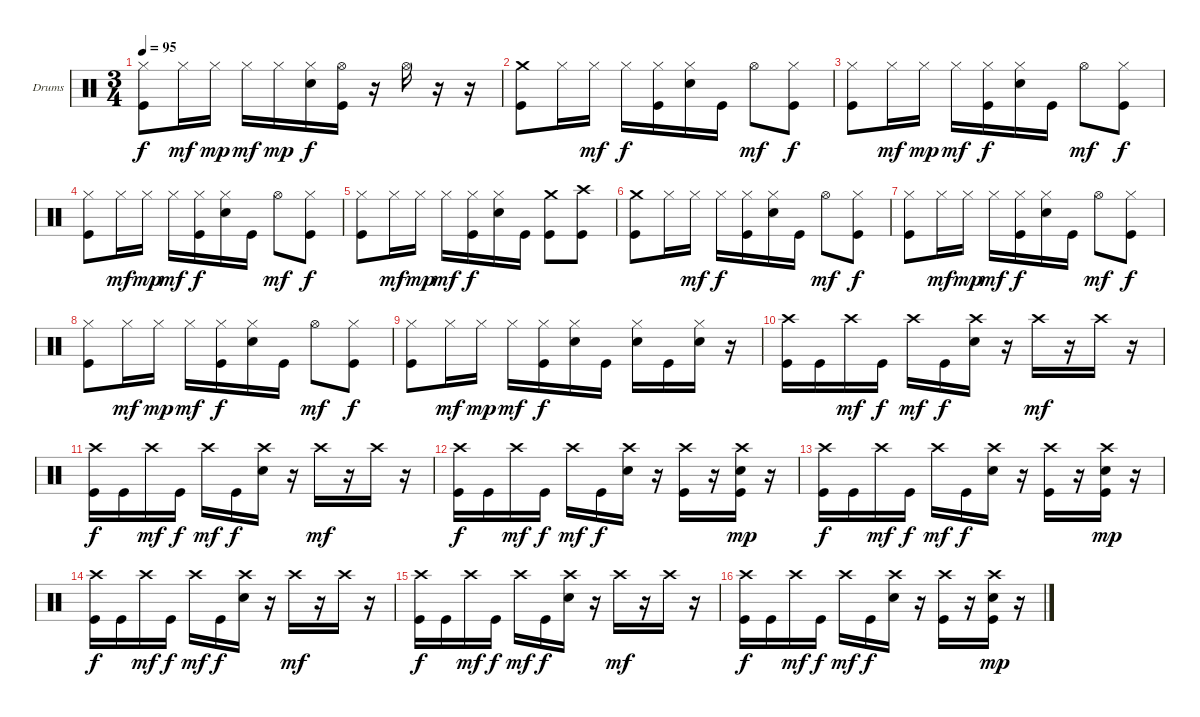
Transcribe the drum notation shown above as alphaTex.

\defaultSystemsLayout 4
\bracketExtendMode groupsimilarinstruments
\firstSystemTrackNameOrientation horizontal
\otherSystemsTrackNameOrientation horizontal
\track ("Drumkit" "Drums") {instrument percussion}
\staff {score}
\articulation defaults
\ts (3 4)
\tempo 95
\clef neutral
\ks c
("Kick (hit)" "Hi-Hat (closed)").8{dy f} "Hi-Hat (closed)".16{dy mf} "Hi-Hat (closed)".16{dy mp} "Hi-Hat (closed)".16{dy mf} "Hi-Hat (closed)".16{dy mp} ("Snare (hit) 2" "Hi-Hat (closed)").16{dy f} ("Kick (hit)" "Hi-Hat (open)").16 r.16 "Hi-Hat (open)".16 r.16 r.16 |
("Kick (hit)" "Crash medium (hit)").8 "Hi-Hat (closed)".16 "Hi-Hat (closed)".16{dy mf} "Hi-Hat (closed)".16{dy f} ("Kick (hit)" "Hi-Hat (closed)").16 ("Snare (hit) 2" "Hi-Hat (closed)").16 "Kick (hit)".16 "Hi-Hat (open)".8{dy mf} ("Kick (hit)" "Hi-Hat (closed)").8{dy f} |
("Kick (hit)" "Hi-Hat (closed)").8 "Hi-Hat (closed)".16{dy mf} "Hi-Hat (closed)".16{dy mp} "Hi-Hat (closed)".16{dy mf} ("Kick (hit)" "Hi-Hat (closed)").16{dy f} ("Snare (hit) 2" "Hi-Hat (closed)").16 "Kick (hit)".16 "Hi-Hat (open)".8{dy mf} ("Kick (hit)" "Hi-Hat (closed)").8{dy f} |
("Kick (hit)" "Hi-Hat (closed)").8 "Hi-Hat (closed)".16{dy mf} "Hi-Hat (closed)".16{dy mp} "Hi-Hat (closed)".16{dy mf} ("Kick (hit)" "Hi-Hat (closed)").16{dy f} ("Snare (hit) 2" "Hi-Hat (closed)").16 "Kick (hit)".16 "Hi-Hat (open)".8{dy mf} ("Kick (hit)" "Hi-Hat (closed)").8{dy f} |
("Kick (hit)" "Hi-Hat (closed)").8 "Hi-Hat (closed)".16{dy mf} "Hi-Hat (closed)".16{dy mp} "Hi-Hat (closed)".16{dy mf} ("Kick (hit)" "Hi-Hat (closed)").16{dy f} ("Snare (hit) 2" "Hi-Hat (closed)").16 "Kick (hit)".16 ("Kick (hit)" "Crash medium (hit)").8 ("Kick (hit)" "Crash high (hit)").8 |
("Kick (hit)" "Crash medium (hit)").8 "Hi-Hat (closed)".16 "Hi-Hat (closed)".16{dy mf} "Hi-Hat (closed)".16{dy f} ("Kick (hit)" "Hi-Hat (closed)").16 ("Snare (hit) 2" "Hi-Hat (closed)").16 "Kick (hit)".16 "Hi-Hat (open)".8{dy mf} ("Kick (hit)" "Hi-Hat (closed)").8{dy f} |
("Kick (hit)" "Hi-Hat (closed)").8 "Hi-Hat (closed)".16{dy mf} "Hi-Hat (closed)".16{dy mp} "Hi-Hat (closed)".16{dy mf} ("Kick (hit)" "Hi-Hat (closed)").16{dy f} ("Snare (hit) 2" "Hi-Hat (closed)").16 "Kick (hit)".16 "Hi-Hat (open)".8{dy mf} ("Kick (hit)" "Hi-Hat (closed)").8{dy f} |
("Kick (hit)" "Hi-Hat (closed)").8 "Hi-Hat (closed)".16{dy mf} "Hi-Hat (closed)".16{dy mp} "Hi-Hat (closed)".16{dy mf} ("Kick (hit)" "Hi-Hat (closed)").16{dy f} ("Snare (hit) 2" "Hi-Hat (closed)").16 "Kick (hit)".16 "Hi-Hat (open)".8{dy mf} ("Kick (hit)" "Hi-Hat (closed)").8{dy f} |
("Kick (hit)" "Hi-Hat (closed)").8 "Hi-Hat (closed)".16{dy mf} "Hi-Hat (closed)".16{dy mp} "Hi-Hat (closed)".16{dy mf} ("Kick (hit)" "Hi-Hat (closed)").16{dy f} ("Snare (hit) 2" "Hi-Hat (closed)").16 "Kick (hit)".16 ("Snare (hit) 2" "Hi-Hat (closed)").16 "Kick (hit)".16 ("Snare (hit) 2" "Hi-Hat (closed)").16 r.16 |
("Kick (hit)" "Crash high (hit)").16 "Kick (hit)".16 "Crash high (hit)".16{dy mf} "Kick (hit)".16{dy f} "Crash high (hit)".16{dy mf} "Kick (hit)".16{dy f} ("Snare (hit) 2" "Crash high (hit)").16 r.16 "Crash high (hit)".16{dy mf} r.16 "Crash high (hit)".16 r.16 |
("Kick (hit)" "Crash high (hit)").16{dy f} "Kick (hit)".16 "Crash high (hit)".16{dy mf} "Kick (hit)".16{dy f} "Crash high (hit)".16{dy mf} "Kick (hit)".16{dy f} ("Snare (hit) 2" "Crash high (hit)").16 r.16 "Crash high (hit)".16{dy mf} r.16 "Crash high (hit)".16 r.16 |
("Kick (hit)" "Crash high (hit)").16{dy f} "Kick (hit)".16 "Crash high (hit)".16{dy mf} "Kick (hit)".16{dy f} "Crash high (hit)".16{dy mf} "Kick (hit)".16{dy f} ("Snare (hit) 2" "Crash high (hit)").16 r.16 ("Kick (hit)" "Crash high (hit)").16 r.16 ("Kick (hit)" "Snare (hit) 2" "Crash high (hit)").16{dy mp} r.16 |
("Kick (hit)" "Crash high (hit)").16{dy f} "Kick (hit)".16 "Crash high (hit)".16{dy mf} "Kick (hit)".16{dy f} "Crash high (hit)".16{dy mf} "Kick (hit)".16{dy f} ("Snare (hit) 2" "Crash high (hit)").16 r.16 ("Kick (hit)" "Crash high (hit)").16 r.16 ("Kick (hit)" "Snare (hit) 2" "Crash high (hit)").16{dy mp} r.16 |
("Kick (hit)" "Crash high (hit)").16{dy f} "Kick (hit)".16 "Crash high (hit)".16{dy mf} "Kick (hit)".16{dy f} "Crash high (hit)".16{dy mf} "Kick (hit)".16{dy f} ("Snare (hit) 2" "Crash high (hit)").16 r.16 "Crash high (hit)".16{dy mf} r.16 "Crash high (hit)".16 r.16 |
("Kick (hit)" "Crash high (hit)").16{dy f} "Kick (hit)".16 "Crash high (hit)".16{dy mf} "Kick (hit)".16{dy f} "Crash high (hit)".16{dy mf} "Kick (hit)".16{dy f} ("Snare (hit) 2" "Crash high (hit)").16 r.16 "Crash high (hit)".16{dy mf} r.16 "Crash high (hit)".16 r.16 |
("Kick (hit)" "Crash high (hit)").16{dy f} "Kick (hit)".16 "Crash high (hit)".16{dy mf} "Kick (hit)".16{dy f} "Crash high (hit)".16{dy mf} "Kick (hit)".16{dy f} ("Snare (hit) 2" "Crash high (hit)").16 r.16 ("Kick (hit)" "Crash high (hit)").16 r.16 ("Kick (hit)" "Snare (hit) 2" "Crash high (hit)").16{dy mp} r.16
